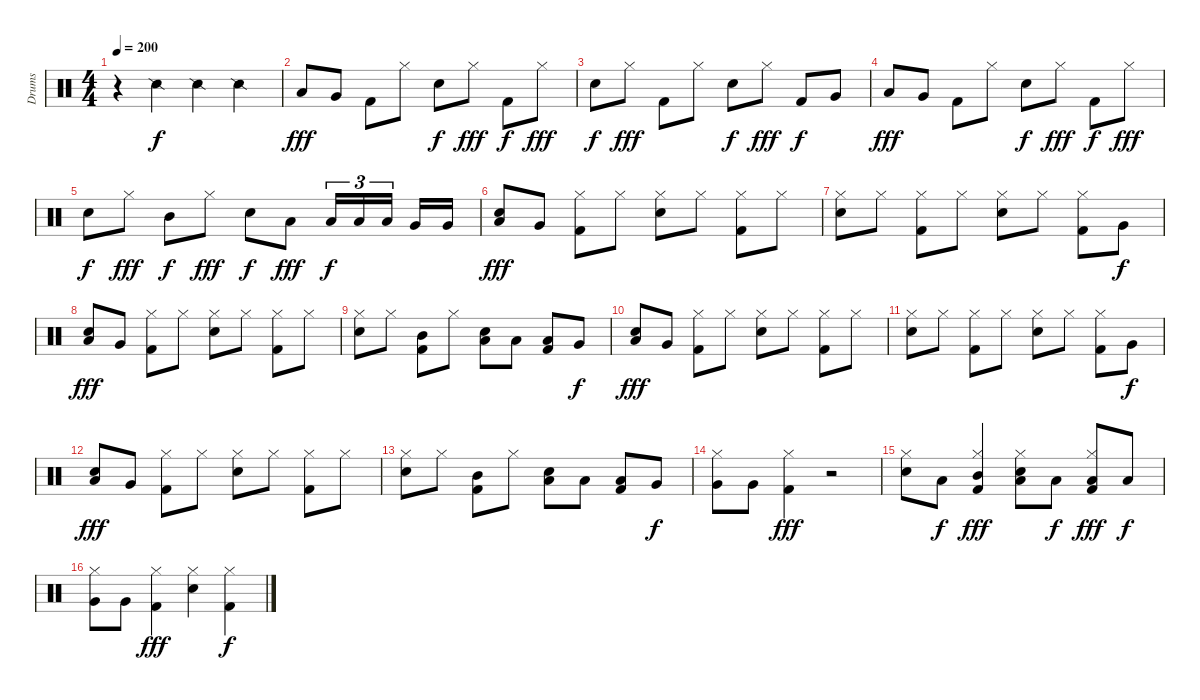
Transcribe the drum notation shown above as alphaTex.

\track ("Drums" "Drums") {instrument percussion}
\staff {score}
\articulation defaults
\ts (4 4)
\tempo 200
\clef neutral
\ks c
r.4{dy f} "Snare (side stick) 2".4 "Snare (side stick) 2".4 "Snare (side stick) 2".4 |
"Low Tom (hit)".8{dy fff} "Very Low Tom (hit)".8 "Kick (hit) 2".8 "Hi-Hat (closed)".8 "Electric Snare (hit)".8{dy f} "Hi-Hat (closed)".8{dy fff} "Kick (hit) 2".8{dy f} "Hi-Hat (closed)".8{dy fff} |
"Electric Snare (hit)".8{dy f} "Hi-Hat (closed)".8{dy fff} "Kick (hit) 2".8 "Hi-Hat (closed)".8 "Electric Snare (hit)".8{dy f} "Hi-Hat (closed)".8{dy fff} "Kick (hit) 2".8{dy f} "Very Low Tom (hit)".8 |
"Low Tom (hit)".8{dy fff} "Very Low Tom (hit)".8 "Kick (hit) 2".8 "Hi-Hat (closed)".8 "Electric Snare (hit)".8{dy f} "Hi-Hat (closed)".8{dy fff} "Kick (hit) 2".8{dy f} "Hi-Hat (closed)".8{dy fff} |
"Electric Snare (hit)".8{dy f} "Hi-Hat (closed)".8{dy fff} "Mid Tom (hit)".8{dy f} "Hi-Hat (closed)".8{dy fff} "Electric Snare (hit)".8{dy f} "Low Tom (hit)".8{dy fff} "Low Floor Tom (hit)".16{tu (3 2) dy f} "Low Floor Tom (hit)".16{tu (3 2)} "Low Floor Tom (hit)".16{tu (3 2)} "Very Low Tom (hit)".16 "Very Low Tom (hit)".16 |
("Low Tom (hit)" "Electric Snare (hit)").8{dy fff} "Very Low Tom (hit)".8 ("Hi-Hat (closed)" "Kick (hit) 2").8 "Hi-Hat (closed)".8 ("Hi-Hat (closed)" "Electric Snare (hit)").8 "Hi-Hat (closed)".8 ("Hi-Hat (closed)" "Kick (hit) 2").8 "Hi-Hat (closed)".8 |
("Hi-Hat (closed)" "Electric Snare (hit)").8 "Hi-Hat (closed)".8 ("Hi-Hat (closed)" "Kick (hit) 2").8 "Hi-Hat (closed)".8 ("Hi-Hat (closed)" "Electric Snare (hit)").8 "Hi-Hat (closed)".8 ("Hi-Hat (closed)" "Kick (hit) 2").8 "Very Low Tom (hit)".8{dy f} |
("Low Tom (hit)" "Electric Snare (hit)").8{dy fff} "Very Low Tom (hit)".8 ("Hi-Hat (closed)" "Kick (hit) 2").8 "Hi-Hat (closed)".8 ("Hi-Hat (closed)" "Electric Snare (hit)").8 "Hi-Hat (closed)".8 ("Hi-Hat (closed)" "Kick (hit) 2").8 "Hi-Hat (closed)".8 |
("Hi-Hat (closed)" "Electric Snare (hit)").8 "Hi-Hat (closed)".8 ("Mid Tom (hit)" "Kick (hit) 2").8 "Hi-Hat (closed)".8 ("Low Tom (hit)" "Electric Snare (hit)").8 "Low Tom (hit)".8 ("Low Floor Tom (hit)" "Kick (hit) 2").8 "Very Low Tom (hit)".8{dy f} |
("Low Tom (hit)" "Electric Snare (hit)").8{dy fff} "Very Low Tom (hit)".8 ("Hi-Hat (closed)" "Kick (hit) 2").8 "Hi-Hat (closed)".8 ("Hi-Hat (closed)" "Electric Snare (hit)").8 "Hi-Hat (closed)".8 ("Hi-Hat (closed)" "Kick (hit) 2").8 "Hi-Hat (closed)".8 |
("Hi-Hat (closed)" "Electric Snare (hit)").8 "Hi-Hat (closed)".8 ("Hi-Hat (closed)" "Kick (hit) 2").8 "Hi-Hat (closed)".8 ("Hi-Hat (closed)" "Electric Snare (hit)").8 "Hi-Hat (closed)".8 ("Hi-Hat (closed)" "Kick (hit) 2").8 "Very Low Tom (hit)".8{dy f} |
("Low Tom (hit)" "Electric Snare (hit)").8{dy fff} "Very Low Tom (hit)".8 ("Hi-Hat (closed)" "Kick (hit) 2").8 "Hi-Hat (closed)".8 ("Hi-Hat (closed)" "Electric Snare (hit)").8 "Hi-Hat (closed)".8 ("Hi-Hat (closed)" "Kick (hit) 2").8 "Hi-Hat (closed)".8 |
("Hi-Hat (closed)" "Electric Snare (hit)").8 "Hi-Hat (closed)".8 ("Mid Tom (hit)" "Kick (hit) 2").8 "Hi-Hat (closed)".8 ("Low Tom (hit)" "Electric Snare (hit)").8 "Low Tom (hit)".8 ("Low Floor Tom (hit)" "Kick (hit) 2").8 "Very Low Tom (hit)".8{dy f} |
("Hi-Hat (closed)" "Very Low Tom (hit)").8 "Very Low Tom (hit)".8 ("Hi-Hat (closed)" "Kick (hit) 2").4{dy fff} r.2 |
("Hi-Hat (closed)" "Electric Snare (hit)").8 "Low Floor Tom (hit)".8{dy f} ("Hi-Hat (closed)" "Kick (hit) 2" "Mid Tom (hit)").4{dy fff} ("Hi-Hat (closed)" "Electric Snare (hit)" "Low Tom (hit)").8 "Low Tom (hit)".8{dy f} ("Hi-Hat (closed)" "Kick (hit) 2" "Low Floor Tom (hit)").8{dy fff} "Low Floor Tom (hit)".8{dy f} |
("Hi-Hat (closed)" "Very Low Tom (hit)").8 "Very Low Tom (hit)".8 ("Hi-Hat (closed)" "Kick (hit) 2").4{dy fff} ("Hi-Hat (closed)" "Electric Snare (hit)").4 ("Hi-Hat (closed)" "Kick (hit) 2").4{dy f}
